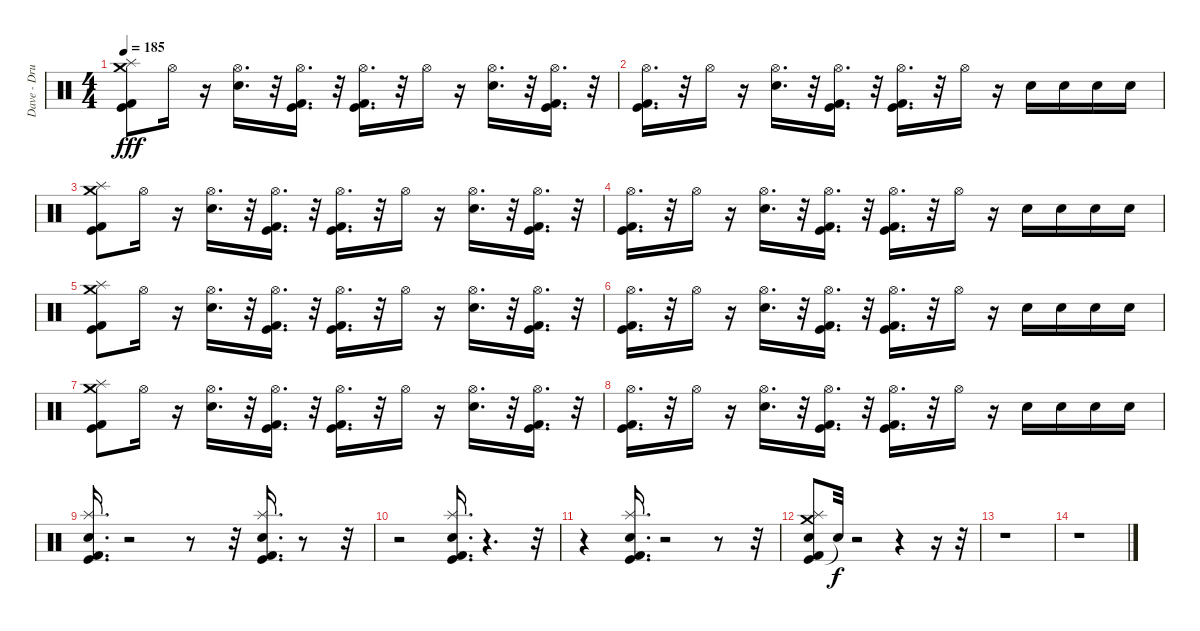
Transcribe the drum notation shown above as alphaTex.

\track ("Dave - Drums" "Dave - Dru") {instrument percussion}
\staff {score}
\articulation defaults
\ts (4 4)
\tempo 185
\clef neutral
\ks c
("Kick (hit) 2" "Kick (hit)" "Splash (hit)" "Crash medium (hit)").8{dy fff} "Hi-Hat (open)".16 r.16 ("Electric Snare (hit)" "Hi-Hat (open)").16{d} r.32 ("Kick (hit) 2" "Kick (hit)" "Hi-Hat (open)").16{d} r.32 ("Kick (hit)" "Kick (hit) 2" "Hi-Hat (open)").16{d} r.32 "Hi-Hat (open)".16 r.16 ("Electric Snare (hit)" "Hi-Hat (open)").16{d} r.32 ("Kick (hit)" "Kick (hit) 2" "Hi-Hat (open)").16{d} r.32 |
("Kick (hit)" "Kick (hit) 2" "Hi-Hat (open)").16{d} r.32 "Hi-Hat (open)".16 r.16 ("Electric Snare (hit)" "Hi-Hat (open)").16{d} r.32 ("Hi-Hat (open)" "Kick (hit)" "Kick (hit) 2").16{d} r.32 ("Kick (hit)" "Kick (hit) 2" "Hi-Hat (open)").16{d} r.32 "Hi-Hat (open)".16 r.16 "Electric Snare (hit)".16 "Electric Snare (hit)".16 "Electric Snare (hit)".16 "Electric Snare (hit)".16 |
("Kick (hit) 2" "Kick (hit)" "Splash (hit)" "Crash medium (hit)").8 "Hi-Hat (open)".16 r.16 ("Electric Snare (hit)" "Hi-Hat (open)").16{d} r.32 ("Kick (hit) 2" "Kick (hit)" "Hi-Hat (open)").16{d} r.32 ("Kick (hit)" "Kick (hit) 2" "Hi-Hat (open)").16{d} r.32 "Hi-Hat (open)".16 r.16 ("Electric Snare (hit)" "Hi-Hat (open)").16{d} r.32 ("Kick (hit)" "Kick (hit) 2" "Hi-Hat (open)").16{d} r.32 |
("Kick (hit)" "Kick (hit) 2" "Hi-Hat (open)").16{d} r.32 "Hi-Hat (open)".16 r.16 ("Electric Snare (hit)" "Hi-Hat (open)").16{d} r.32 ("Hi-Hat (open)" "Kick (hit)" "Kick (hit) 2").16{d} r.32 ("Kick (hit)" "Kick (hit) 2" "Hi-Hat (open)").16{d} r.32 "Hi-Hat (open)".16 r.16 "Electric Snare (hit)".16 "Electric Snare (hit)".16 "Electric Snare (hit)".16 "Electric Snare (hit)".16 |
("Kick (hit) 2" "Kick (hit)" "Splash (hit)" "Crash medium (hit)").8 "Hi-Hat (open)".16 r.16 ("Electric Snare (hit)" "Hi-Hat (open)").16{d} r.32 ("Kick (hit) 2" "Kick (hit)" "Hi-Hat (open)").16{d} r.32 ("Kick (hit)" "Kick (hit) 2" "Hi-Hat (open)").16{d} r.32 "Hi-Hat (open)".16 r.16 ("Electric Snare (hit)" "Hi-Hat (open)").16{d} r.32 ("Kick (hit)" "Kick (hit) 2" "Hi-Hat (open)").16{d} r.32 |
("Kick (hit)" "Kick (hit) 2" "Hi-Hat (open)").16{d} r.32 "Hi-Hat (open)".16 r.16 ("Electric Snare (hit)" "Hi-Hat (open)").16{d} r.32 ("Hi-Hat (open)" "Kick (hit)" "Kick (hit) 2").16{d} r.32 ("Kick (hit)" "Kick (hit) 2" "Hi-Hat (open)").16{d} r.32 "Hi-Hat (open)".16 r.16 "Electric Snare (hit)".16 "Electric Snare (hit)".16 "Electric Snare (hit)".16 "Electric Snare (hit)".16 |
("Kick (hit) 2" "Kick (hit)" "Splash (hit)" "Crash medium (hit)").8 "Hi-Hat (open)".16 r.16 ("Electric Snare (hit)" "Hi-Hat (open)").16{d} r.32 ("Kick (hit) 2" "Kick (hit)" "Hi-Hat (open)").16{d} r.32 ("Kick (hit)" "Kick (hit) 2" "Hi-Hat (open)").16{d} r.32 "Hi-Hat (open)".16 r.16 ("Electric Snare (hit)" "Hi-Hat (open)").16{d} r.32 ("Kick (hit)" "Kick (hit) 2" "Hi-Hat (open)").16{d} r.32 |
("Kick (hit)" "Kick (hit) 2" "Hi-Hat (open)").16{d} r.32 "Hi-Hat (open)".16 r.16 ("Electric Snare (hit)" "Hi-Hat (open)").16{d} r.32 ("Hi-Hat (open)" "Kick (hit)" "Kick (hit) 2").16{d} r.32 ("Kick (hit)" "Kick (hit) 2" "Hi-Hat (open)").16{d} r.32 "Hi-Hat (open)".16 r.16 "Electric Snare (hit)".16 "Electric Snare (hit)".16 "Electric Snare (hit)".16 "Electric Snare (hit)".16 |
("Kick (hit)" "Kick (hit) 2" "Electric Snare (hit)" "Splash (hit)").16{d} r.2 r.8 r.32 ("Kick (hit)" "Kick (hit) 2" "Electric Snare (hit)" "Splash (hit)").16{d} r.8 r.32 |
r.2 ("Kick (hit)" "Kick (hit) 2" "Electric Snare (hit)" "Splash (hit)").16{d} r.4{d} r.32 |
r.4 ("Kick (hit)" "Kick (hit) 2" "Electric Snare (hit)" "Splash (hit)").16{d} r.2 r.8 r.32 |
("Kick (hit)" "Kick (hit) 2" "Electric Snare (hit)" "Splash (hit)" "Crash medium (hit)").8 "Snare (hit)"{t}.32{dy f} r.2 r.4 r.16 r.32 |
r.1 |
r.1
